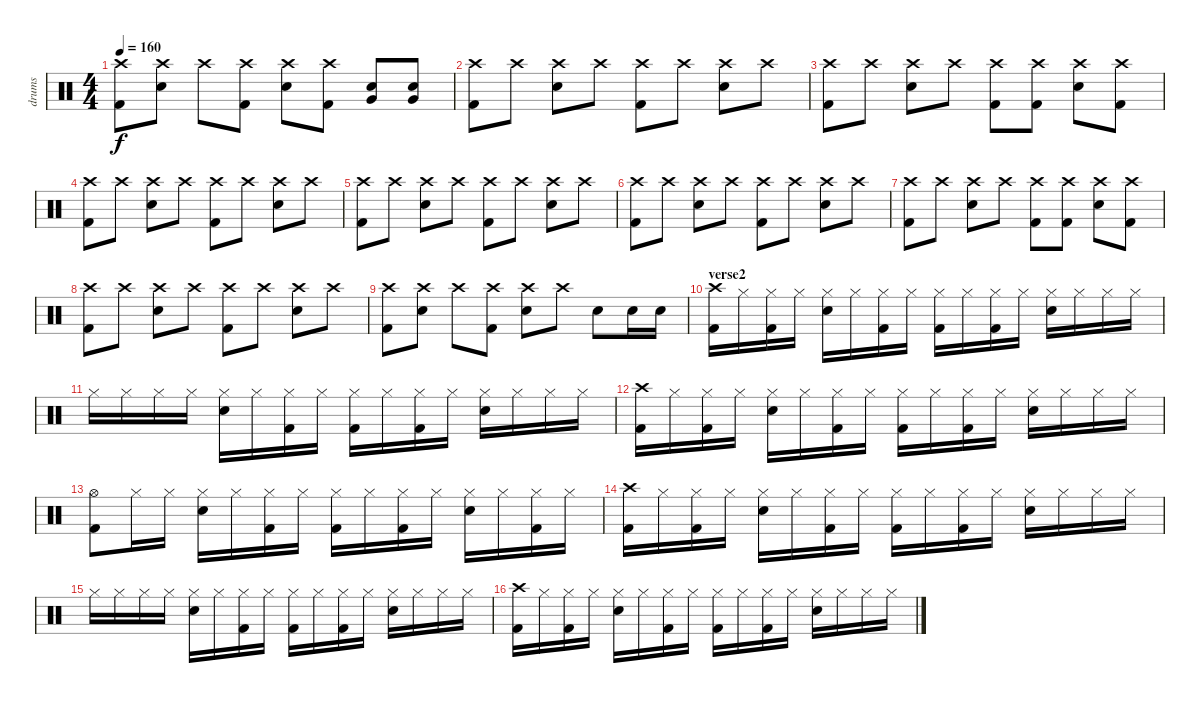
\track ("drums" "drums") {instrument percussion}
\staff {score}
\articulation defaults
\ts (4 4)
\tempo 160
\clef neutral
\ks c
("Crash high (hit)" "Kick (hit) 2").8{dy f} ("Crash high (hit)" "Electric Snare (hit)").8 "Crash high (hit)".8 ("Crash high (hit)" "Kick (hit) 2").8 ("Crash high (hit)" "Electric Snare (hit)").8 ("Crash high (hit)" "Kick (hit) 2").8 ("Very Low Tom (hit)" "Electric Snare (hit)").8 ("Very Low Tom (hit)" "Electric Snare (hit)").8 |
("Crash high (hit)" "Kick (hit) 2").8 "Crash high (hit)".8 ("Crash high (hit)" "Electric Snare (hit)").8 "Crash high (hit)".8 ("Crash high (hit)" "Kick (hit) 2").8 "Crash high (hit)".8 ("Crash high (hit)" "Electric Snare (hit)").8 "Crash high (hit)".8 |
("Crash high (hit)" "Kick (hit) 2").8 "Crash high (hit)".8 ("Crash high (hit)" "Electric Snare (hit)").8 "Crash high (hit)".8 ("Crash high (hit)" "Kick (hit) 2").8 ("Crash high (hit)" "Kick (hit) 2").8 ("Crash high (hit)" "Electric Snare (hit)").8 ("Crash high (hit)" "Kick (hit) 2").8 |
("Crash high (hit)" "Kick (hit) 2").8 "Crash high (hit)".8 ("Crash high (hit)" "Electric Snare (hit)").8 "Crash high (hit)".8 ("Crash high (hit)" "Kick (hit) 2").8 "Crash high (hit)".8 ("Crash high (hit)" "Electric Snare (hit)").8 "Crash high (hit)".8 |
("Crash high (hit)" "Kick (hit) 2").8 "Crash high (hit)".8 ("Crash high (hit)" "Electric Snare (hit)").8 "Crash high (hit)".8 ("Crash high (hit)" "Kick (hit) 2").8 "Crash high (hit)".8 ("Crash high (hit)" "Electric Snare (hit)").8 "Crash high (hit)".8 |
("Crash high (hit)" "Kick (hit) 2").8 "Crash high (hit)".8 ("Crash high (hit)" "Electric Snare (hit)").8 "Crash high (hit)".8 ("Crash high (hit)" "Kick (hit) 2").8 "Crash high (hit)".8 ("Crash high (hit)" "Electric Snare (hit)").8 "Crash high (hit)".8 |
("Crash high (hit)" "Kick (hit) 2").8 "Crash high (hit)".8 ("Crash high (hit)" "Electric Snare (hit)").8 "Crash high (hit)".8 ("Crash high (hit)" "Kick (hit) 2").8 ("Crash high (hit)" "Kick (hit) 2").8 ("Crash high (hit)" "Electric Snare (hit)").8 ("Crash high (hit)" "Kick (hit) 2").8 |
("Crash high (hit)" "Kick (hit) 2").8 "Crash high (hit)".8 ("Crash high (hit)" "Electric Snare (hit)").8 "Crash high (hit)".8 ("Crash high (hit)" "Kick (hit) 2").8 "Crash high (hit)".8 ("Crash high (hit)" "Electric Snare (hit)").8 "Crash high (hit)".8 |
("Crash high (hit)" "Kick (hit) 2").8 ("Crash high (hit)" "Electric Snare (hit)").8 "Crash high (hit)".8 ("Crash high (hit)" "Kick (hit) 2").8 ("Crash high (hit)" "Electric Snare (hit)").8 "Crash high (hit)".8 "Electric Snare (hit)".8 "Electric Snare (hit)".16 "Electric Snare (hit)".16 |
\section ("" "verse2")
("Crash high (hit)" "Kick (hit) 2").16 "Hi-Hat (closed)".16 ("Hi-Hat (closed)" "Kick (hit) 2").16 "Hi-Hat (closed)".16 ("Hi-Hat (closed)" "Electric Snare (hit)").16 "Hi-Hat (closed)".16 ("Hi-Hat (closed)" "Kick (hit) 2").16 "Hi-Hat (closed)".16 ("Hi-Hat (closed)" "Kick (hit) 2").16 "Hi-Hat (closed)".16 ("Hi-Hat (closed)" "Kick (hit) 2").16 "Hi-Hat (closed)".16 ("Hi-Hat (closed)" "Electric Snare (hit)").16 "Hi-Hat (closed)".16 "Hi-Hat (closed)".16 "Hi-Hat (closed)".16 |
"Hi-Hat (closed)".16 "Hi-Hat (closed)".16 "Hi-Hat (closed)".16 "Hi-Hat (closed)".16 ("Hi-Hat (closed)" "Electric Snare (hit)").16 "Hi-Hat (closed)".16 ("Hi-Hat (closed)" "Kick (hit) 2").16 "Hi-Hat (closed)".16 ("Hi-Hat (closed)" "Kick (hit) 2").16 "Hi-Hat (closed)".16 ("Hi-Hat (closed)" "Kick (hit) 2").16 "Hi-Hat (closed)".16 ("Hi-Hat (closed)" "Electric Snare (hit)").16 "Hi-Hat (closed)".16 "Hi-Hat (closed)".16 "Hi-Hat (closed)".16 |
("Crash high (hit)" "Kick (hit) 2").16 "Hi-Hat (closed)".16 ("Hi-Hat (closed)" "Kick (hit) 2").16 "Hi-Hat (closed)".16 ("Hi-Hat (closed)" "Electric Snare (hit)").16 "Hi-Hat (closed)".16 ("Hi-Hat (closed)" "Kick (hit) 2").16 "Hi-Hat (closed)".16 ("Hi-Hat (closed)" "Kick (hit) 2").16 "Hi-Hat (closed)".16 ("Hi-Hat (closed)" "Kick (hit) 2").16 "Hi-Hat (closed)".16 ("Hi-Hat (closed)" "Electric Snare (hit)").16 "Hi-Hat (closed)".16 "Hi-Hat (closed)".16 "Hi-Hat (closed)".16 |
("Hi-Hat (open)" "Kick (hit) 2").8 "Hi-Hat (closed)".16 "Hi-Hat (closed)".16 ("Hi-Hat (closed)" "Electric Snare (hit)").16 "Hi-Hat (closed)".16 ("Hi-Hat (closed)" "Kick (hit) 2").16 "Hi-Hat (closed)".16 ("Hi-Hat (closed)" "Kick (hit) 2").16 "Hi-Hat (closed)".16 ("Hi-Hat (closed)" "Kick (hit) 2").16 "Hi-Hat (closed)".16 ("Hi-Hat (closed)" "Electric Snare (hit)").16 "Hi-Hat (closed)".16 ("Hi-Hat (closed)" "Kick (hit) 2").16 "Hi-Hat (closed)".16 |
("Crash high (hit)" "Kick (hit) 2").16 "Hi-Hat (closed)".16 ("Hi-Hat (closed)" "Kick (hit) 2").16 "Hi-Hat (closed)".16 ("Hi-Hat (closed)" "Electric Snare (hit)").16 "Hi-Hat (closed)".16 ("Hi-Hat (closed)" "Kick (hit) 2").16 "Hi-Hat (closed)".16 ("Hi-Hat (closed)" "Kick (hit) 2").16 "Hi-Hat (closed)".16 ("Hi-Hat (closed)" "Kick (hit) 2").16 "Hi-Hat (closed)".16 ("Hi-Hat (closed)" "Electric Snare (hit)").16 "Hi-Hat (closed)".16 "Hi-Hat (closed)".16 "Hi-Hat (closed)".16 |
"Hi-Hat (closed)".16 "Hi-Hat (closed)".16 "Hi-Hat (closed)".16 "Hi-Hat (closed)".16 ("Hi-Hat (closed)" "Electric Snare (hit)").16 "Hi-Hat (closed)".16 ("Hi-Hat (closed)" "Kick (hit) 2").16 "Hi-Hat (closed)".16 ("Hi-Hat (closed)" "Kick (hit) 2").16 "Hi-Hat (closed)".16 ("Hi-Hat (closed)" "Kick (hit) 2").16 "Hi-Hat (closed)".16 ("Hi-Hat (closed)" "Electric Snare (hit)").16 "Hi-Hat (closed)".16 "Hi-Hat (closed)".16 "Hi-Hat (closed)".16 |
("Crash high (hit)" "Kick (hit) 2").16 "Hi-Hat (closed)".16 ("Hi-Hat (closed)" "Kick (hit) 2").16 "Hi-Hat (closed)".16 ("Hi-Hat (closed)" "Electric Snare (hit)").16 "Hi-Hat (closed)".16 ("Hi-Hat (closed)" "Kick (hit) 2").16 "Hi-Hat (closed)".16 ("Hi-Hat (closed)" "Kick (hit) 2").16 "Hi-Hat (closed)".16 ("Hi-Hat (closed)" "Kick (hit) 2").16 "Hi-Hat (closed)".16 ("Hi-Hat (closed)" "Electric Snare (hit)").16 "Hi-Hat (closed)".16 "Hi-Hat (closed)".16 "Hi-Hat (closed)".16
